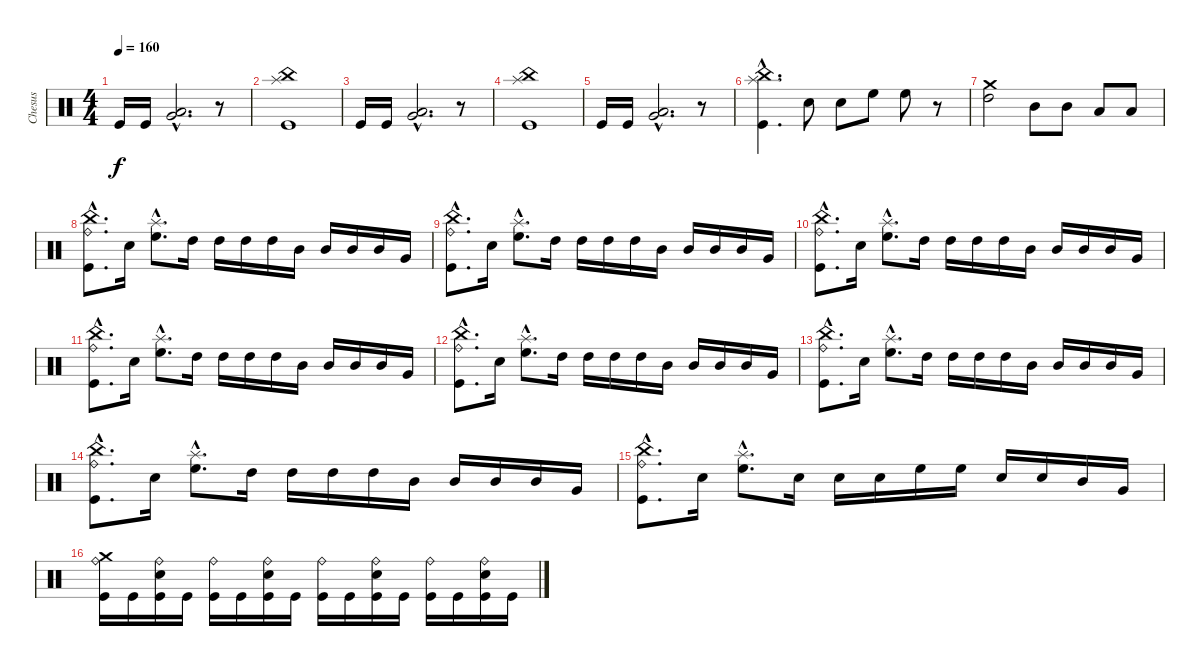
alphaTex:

\track ("Chesus" "Chesus") {instrument percussion}
\staff {score}
\articulation defaults
\ts (4 4)
\tempo 160
\clef neutral
\ks c "Kick (hit)".16{dy f} "Kick (hit)".16
("Very Low Tom (hit)"{hac} "Low Floor Tom (hit)"{hac}).2{d} r.8 |
("China (hit)" "Splash (hit)" "Kick (hit)").1 |
"Kick (hit)".16 "Kick (hit)".16 ("Very Low Tom (hit)"{hac} "Low Floor Tom (hit)"{hac}).2{d} r.8 |
("China (hit)" "Splash (hit)" "Kick (hit)").1 |
"Kick (hit)".16 "Kick (hit)".16 ("Very Low Tom (hit)"{hac} "Low Floor Tom (hit)"{hac}).2{d} r.8 |
("China (hit)"{hac} "Splash (hit)"{hac} "Kick (hit)"{hac}).4{d} "Snare (hit) 2".8 "Snare (hit) 2".8 "High Floor Tom (hit)".8 "High Floor Tom (hit)".8 r.8 |
("Crash medium (hit)" "High Tom (hit)").2 "Mid Tom (hit)".8 "Mid Tom (hit)".8 "Low Tom (hit)".8 "Low Tom (hit)".8 |
("China (hit)"{hac} "Ride (bell)"{hac} "Kick (hit)"{hac}).8{d} "Snare (hit) 2".16 ("Splash (hit)"{hac} "High Floor Tom (hit)"{hac}).8{d} "High Tom (hit)".16 "High Tom (hit)".16 "High Tom (hit)".16 "High Tom (hit)".16 "Mid Tom (hit)".16 "Mid Tom (hit)".16 "Mid Tom (hit)".16 "Mid Tom (hit)".16 "Very Low Tom (hit)".16 |
("China (hit)"{hac} "Ride (bell)"{hac} "Kick (hit)"{hac}).8{d} "Snare (hit) 2".16 ("Splash (hit)"{hac} "High Floor Tom (hit)"{hac}).8{d} "High Tom (hit)".16 "High Tom (hit)".16 "High Tom (hit)".16 "High Tom (hit)".16 "Mid Tom (hit)".16 "Mid Tom (hit)".16 "Mid Tom (hit)".16 "Mid Tom (hit)".16 "Very Low Tom (hit)".16 |
("China (hit)"{hac} "Ride (bell)"{hac} "Kick (hit)"{hac}).8{d} "Snare (hit) 2".16 ("Splash (hit)"{hac} "High Floor Tom (hit)"{hac}).8{d} "High Tom (hit)".16 "High Tom (hit)".16 "High Tom (hit)".16 "High Tom (hit)".16 "Mid Tom (hit)".16 "Mid Tom (hit)".16 "Mid Tom (hit)".16 "Mid Tom (hit)".16 "Very Low Tom (hit)".16 |
("China (hit)"{hac} "Ride (bell)"{hac} "Kick (hit)"{hac}).8{d} "Snare (hit) 2".16 ("Splash (hit)"{hac} "High Floor Tom (hit)"{hac}).8{d} "High Tom (hit)".16 "High Tom (hit)".16 "High Tom (hit)".16 "High Tom (hit)".16 "Mid Tom (hit)".16 "Mid Tom (hit)".16 "Mid Tom (hit)".16 "Mid Tom (hit)".16 "Very Low Tom (hit)".16 |
("China (hit)"{hac} "Ride (bell)"{hac} "Kick (hit)"{hac}).8{d} "Snare (hit) 2".16 ("Splash (hit)"{hac} "High Floor Tom (hit)"{hac}).8{d} "High Tom (hit)".16 "High Tom (hit)".16 "High Tom (hit)".16 "High Tom (hit)".16 "Mid Tom (hit)".16 "Mid Tom (hit)".16 "Mid Tom (hit)".16 "Mid Tom (hit)".16 "Very Low Tom (hit)".16 |
("China (hit)"{hac} "Ride (bell)"{hac} "Kick (hit)"{hac}).8{d} "Snare (hit) 2".16 ("Splash (hit)"{hac} "High Floor Tom (hit)"{hac}).8{d} "High Tom (hit)".16 "High Tom (hit)".16 "High Tom (hit)".16 "High Tom (hit)".16 "Mid Tom (hit)".16 "Mid Tom (hit)".16 "Mid Tom (hit)".16 "Mid Tom (hit)".16 "Very Low Tom (hit)".16 |
("China (hit)"{hac} "Ride (bell)"{hac} "Kick (hit)"{hac}).8{d} "Snare (hit) 2".16 ("Splash (hit)"{hac} "High Floor Tom (hit)"{hac}).8{d} "High Tom (hit)".16 "High Tom (hit)".16 "High Tom (hit)".16 "High Tom (hit)".16 "Mid Tom (hit)".16 "Mid Tom (hit)".16 "Mid Tom (hit)".16 "Mid Tom (hit)".16 "Very Low Tom (hit)".16 |
("China (hit)"{hac} "Ride (bell)"{hac} "Kick (hit)"{hac}).8{d} "Snare (hit) 2".16 ("Splash (hit)"{hac} "High Floor Tom (hit)"{hac}).8{d} "Snare (hit) 2".16 "Snare (hit) 2".16 "Snare (hit) 2".16 "High Floor Tom (hit)".16 "High Floor Tom (hit)".16 "Snare (hit) 2".16 "Snare (hit) 2".16 "Mid Tom (hit)".16 "Very Low Tom (hit)".16 |
("Crash medium (hit)" "Ride (bell)" "Kick (hit)").16 "Kick (hit)".16 ("Ride (bell)" "Snare (hit) 2" "Kick (hit)").16 "Kick (hit)".16 ("Ride (bell)" "Kick (hit)").16 "Kick (hit)".16 ("Ride (bell)" "Snare (hit) 2" "Kick (hit)").16 "Kick (hit)".16 ("Ride (bell)" "Kick (hit)").16 "Kick (hit)".16 ("Ride (bell)" "Snare (hit) 2" "Kick (hit)").16 "Kick (hit)".16 ("Ride (bell)" "Kick (hit)").16 "Kick (hit)".16 ("Ride (bell)" "Snare (hit) 2" "Kick (hit)").16 "Kick (hit)".16
